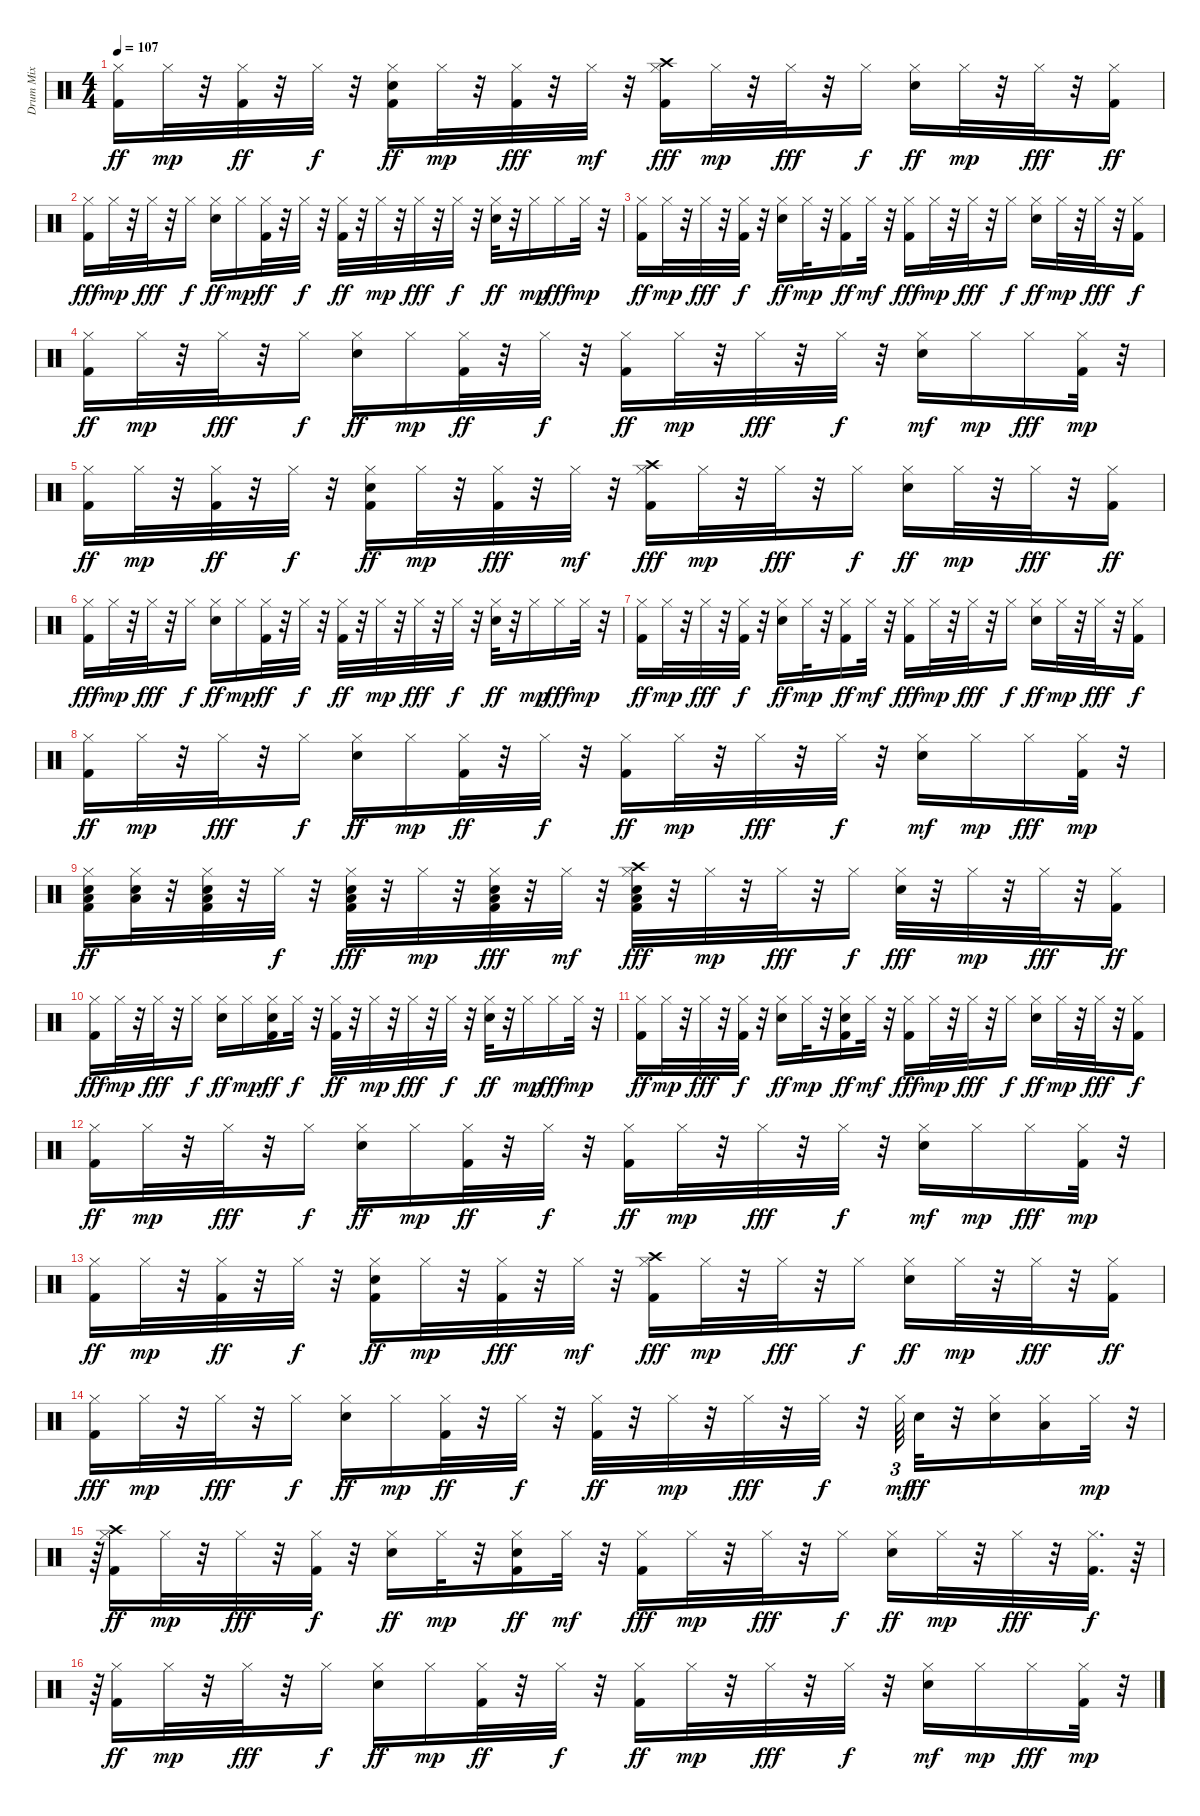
\track ("Drum Mix" "Drum Mix") {instrument percussion}
\staff {score}
\articulation defaults
\ts (4 4)
\tempo 107
\clef neutral
\ks c
("Hi-Hat (closed)" "Kick (hit) 2").16{dy ff} "Hi-Hat (closed)".32{dy mp} r.32 ("Hi-Hat (closed)" "Kick (hit) 2").32{dy ff} r.32 "Hi-Hat (closed)".32{dy f} r.32 ("Hi-Hat (closed)" "Snare (hit) 2" "Kick (hit) 2").16{dy ff} "Hi-Hat (closed)".32{dy mp} r.32 ("Hi-Hat (closed)" "Kick (hit) 2").32{dy fff} r.32 "Hi-Hat (closed)".32{dy mf} r.32 ("Hi-Hat (closed)" "Kick (hit) 2" "Crash high (hit)").16{dy fff} "Hi-Hat (closed)".32{dy mp} r.32 "Hi-Hat (closed)".32{dy fff} r.32 "Hi-Hat (closed)".16{dy f} ("Hi-Hat (closed)" "Snare (hit) 2").16{dy ff} "Hi-Hat (closed)".32{dy mp} r.32 "Hi-Hat (closed)".32{dy fff} r.32 ("Hi-Hat (closed)" "Kick (hit) 2").16{dy ff} |
("Hi-Hat (closed)" "Kick (hit) 2").16{dy fff} "Hi-Hat (closed)".32{dy mp} r.32 "Hi-Hat (closed)".32{dy fff} r.32 "Hi-Hat (closed)".16{dy f} ("Hi-Hat (closed)" "Snare (hit) 2").16{dy ff} "Hi-Hat (closed)".16{dy mp} ("Hi-Hat (closed)" "Kick (hit) 2").32{dy ff} r.32 "Hi-Hat (closed)".32{dy f} r.32 ("Hi-Hat (closed)" "Kick (hit) 2").32{dy ff} r.32 "Hi-Hat (closed)".32{dy mp} r.32 "Hi-Hat (closed)".32{dy fff} r.32 "Hi-Hat (closed)".32{dy f} r.32 ("Hi-Hat (closed)" "Snare (hit) 2").32{dy ff} r.32 "Hi-Hat (closed)".16{dy mp} "Hi-Hat (closed)".16{dy fff} "Hi-Hat (closed)".32{dy mp} r.32 |
("Hi-Hat (closed)" "Kick (hit) 2").16{dy ff} "Hi-Hat (closed)".32{dy mp} r.32 "Hi-Hat (closed)".32{dy fff} r.32 ("Hi-Hat (closed)" "Kick (hit) 2").32{dy f} r.32 ("Hi-Hat (closed)" "Snare (hit) 2").16{dy ff} "Hi-Hat (closed)".32{dy mp} r.32 ("Hi-Hat (closed)" "Kick (hit) 2").16{dy ff} "Hi-Hat (closed)".32{dy mf} r.32 ("Hi-Hat (closed)" "Kick (hit) 2").16{dy fff} "Hi-Hat (closed)".32{dy mp} r.32 "Hi-Hat (closed)".32{dy fff} r.32 "Hi-Hat (closed)".16{dy f} ("Hi-Hat (closed)" "Snare (hit) 2").16{dy ff} "Hi-Hat (closed)".32{dy mp} r.32 "Hi-Hat (closed)".32{dy fff} r.32 ("Hi-Hat (closed)" "Kick (hit) 2").16{dy f} |
("Hi-Hat (closed)" "Kick (hit) 2").16{dy ff} "Hi-Hat (closed)".32{dy mp} r.32 "Hi-Hat (closed)".32{dy fff} r.32 "Hi-Hat (closed)".16{dy f} ("Hi-Hat (closed)" "Snare (hit) 2").16{dy ff} "Hi-Hat (closed)".16{dy mp} ("Hi-Hat (closed)" "Kick (hit) 2").32{dy ff} r.32 "Hi-Hat (closed)".32{dy f} r.32 ("Hi-Hat (closed)" "Kick (hit) 2").16{dy ff} "Hi-Hat (closed)".32{dy mp} r.32 "Hi-Hat (closed)".32{dy fff} r.32 "Hi-Hat (closed)".32{dy f} r.32 ("Hi-Hat (closed)" "Snare (hit) 2").16{dy mf} "Hi-Hat (closed)".16{dy mp} "Hi-Hat (closed)".16{dy fff} ("Hi-Hat (closed)" "Kick (hit) 2").32{dy mp} r.32 |
("Hi-Hat (closed)" "Kick (hit) 2").16{dy ff} "Hi-Hat (closed)".32{dy mp} r.32 ("Hi-Hat (closed)" "Kick (hit) 2").32{dy ff} r.32 "Hi-Hat (closed)".32{dy f} r.32 ("Hi-Hat (closed)" "Snare (hit) 2" "Kick (hit) 2").16{dy ff} "Hi-Hat (closed)".32{dy mp} r.32 ("Hi-Hat (closed)" "Kick (hit) 2").32{dy fff} r.32 "Hi-Hat (closed)".32{dy mf} r.32 ("Hi-Hat (closed)" "Kick (hit) 2" "Crash high (hit)").16{dy fff} "Hi-Hat (closed)".32{dy mp} r.32 "Hi-Hat (closed)".32{dy fff} r.32 "Hi-Hat (closed)".16{dy f} ("Hi-Hat (closed)" "Snare (hit) 2").16{dy ff} "Hi-Hat (closed)".32{dy mp} r.32 "Hi-Hat (closed)".32{dy fff} r.32 ("Hi-Hat (closed)" "Kick (hit) 2").16{dy ff} |
("Hi-Hat (closed)" "Kick (hit) 2").16{dy fff} "Hi-Hat (closed)".32{dy mp} r.32 "Hi-Hat (closed)".32{dy fff} r.32 "Hi-Hat (closed)".16{dy f} ("Hi-Hat (closed)" "Snare (hit) 2").16{dy ff} "Hi-Hat (closed)".16{dy mp} ("Hi-Hat (closed)" "Kick (hit) 2").32{dy ff} r.32 "Hi-Hat (closed)".32{dy f} r.32 ("Hi-Hat (closed)" "Kick (hit) 2").32{dy ff} r.32 "Hi-Hat (closed)".32{dy mp} r.32 "Hi-Hat (closed)".32{dy fff} r.32 "Hi-Hat (closed)".32{dy f} r.32 ("Hi-Hat (closed)" "Snare (hit) 2").32{dy ff} r.32 "Hi-Hat (closed)".16{dy mp} "Hi-Hat (closed)".16{dy fff} "Hi-Hat (closed)".32{dy mp} r.32 |
("Hi-Hat (closed)" "Kick (hit) 2").16{dy ff} "Hi-Hat (closed)".32{dy mp} r.32 "Hi-Hat (closed)".32{dy fff} r.32 ("Hi-Hat (closed)" "Kick (hit) 2").32{dy f} r.32 ("Hi-Hat (closed)" "Snare (hit) 2").16{dy ff} "Hi-Hat (closed)".32{dy mp} r.32 ("Hi-Hat (closed)" "Kick (hit) 2").16{dy ff} "Hi-Hat (closed)".32{dy mf} r.32 ("Hi-Hat (closed)" "Kick (hit) 2").16{dy fff} "Hi-Hat (closed)".32{dy mp} r.32 "Hi-Hat (closed)".32{dy fff} r.32 "Hi-Hat (closed)".16{dy f} ("Hi-Hat (closed)" "Snare (hit) 2").16{dy ff} "Hi-Hat (closed)".32{dy mp} r.32 "Hi-Hat (closed)".32{dy fff} r.32 ("Hi-Hat (closed)" "Kick (hit) 2").16{dy f} |
("Hi-Hat (closed)" "Kick (hit) 2").16{dy ff} "Hi-Hat (closed)".32{dy mp} r.32 "Hi-Hat (closed)".32{dy fff} r.32 "Hi-Hat (closed)".16{dy f} ("Hi-Hat (closed)" "Snare (hit) 2").16{dy ff} "Hi-Hat (closed)".16{dy mp} ("Hi-Hat (closed)" "Kick (hit) 2").32{dy ff} r.32 "Hi-Hat (closed)".32{dy f} r.32 ("Hi-Hat (closed)" "Kick (hit) 2").16{dy ff} "Hi-Hat (closed)".32{dy mp} r.32 "Hi-Hat (closed)".32{dy fff} r.32 "Hi-Hat (closed)".32{dy f} r.32 ("Hi-Hat (closed)" "Snare (hit) 2").16{dy mf} "Hi-Hat (closed)".16{dy mp} "Hi-Hat (closed)".16{dy fff} ("Hi-Hat (closed)" "Kick (hit) 2").32{dy mp} r.32 |
("Hi-Hat (closed)" "Snare (hit) 2" "Low Tom (hit)" "Kick (hit) 2").16{dy ff} ("Hi-Hat (closed)" "Snare (hit) 2" "Low Tom (hit)").32 r.32 ("Hi-Hat (closed)" "Kick (hit) 2" "Snare (hit) 2" "Low Tom (hit)").32 r.32 "Hi-Hat (closed)".32{dy f} r.32 ("Hi-Hat (closed)" "Snare (hit) 2" "Kick (hit) 2" "Low Tom (hit)").32{dy fff} r.32 "Hi-Hat (closed)".32{dy mp} r.32 ("Hi-Hat (closed)" "Low Tom (hit)" "Kick (hit) 2" "Snare (hit) 2").32{dy fff} r.32 "Hi-Hat (closed)".32{dy mf} r.32 ("Hi-Hat (closed)" "Kick (hit) 2" "Crash high (hit)" "Low Tom (hit)" "Snare (hit) 2").32{dy fff} r.32 "Hi-Hat (closed)".32{dy mp} r.32 "Hi-Hat (closed)".32{dy fff} r.32 "Hi-Hat (closed)".16{dy f} ("Hi-Hat (closed)" "Snare (hit) 2").32{dy fff} r.32 "Hi-Hat (closed)".32{dy mp} r.32 "Hi-Hat (closed)".32{dy fff} r.32 ("Hi-Hat (closed)" "Kick (hit) 2").16{dy ff} |
("Hi-Hat (closed)" "Kick (hit) 2").16{dy fff} "Hi-Hat (closed)".32{dy mp} r.32 "Hi-Hat (closed)".32{dy fff} r.32 "Hi-Hat (closed)".16{dy f} ("Hi-Hat (closed)" "Snare (hit) 2").16{dy ff} "Hi-Hat (closed)".16{dy mp} ("Hi-Hat (closed)" "Kick (hit) 2" "Snare (hit) 2").16{dy ff} "Hi-Hat (closed)".32{dy f} r.32 ("Hi-Hat (closed)" "Kick (hit) 2").32{dy ff} r.32 "Hi-Hat (closed)".32{dy mp} r.32 "Hi-Hat (closed)".32{dy fff} r.32 "Hi-Hat (closed)".32{dy f} r.32 ("Hi-Hat (closed)" "Snare (hit) 2").32{dy ff} r.32 "Hi-Hat (closed)".16{dy mp} "Hi-Hat (closed)".16{dy fff} "Hi-Hat (closed)".32{dy mp} r.32 |
("Hi-Hat (closed)" "Kick (hit) 2").16{dy ff} "Hi-Hat (closed)".32{dy mp} r.32 "Hi-Hat (closed)".32{dy fff} r.32 ("Hi-Hat (closed)" "Kick (hit) 2").32{dy f} r.32 ("Hi-Hat (closed)" "Snare (hit) 2").16{dy ff} "Hi-Hat (closed)".32{dy mp} r.32 ("Hi-Hat (closed)" "Snare (hit) 2" "Kick (hit) 2").16{dy ff} "Hi-Hat (closed)".32{dy mf} r.32 ("Hi-Hat (closed)" "Kick (hit) 2").16{dy fff} "Hi-Hat (closed)".32{dy mp} r.32 "Hi-Hat (closed)".32{dy fff} r.32 "Hi-Hat (closed)".16{dy f} ("Hi-Hat (closed)" "Snare (hit) 2").16{dy ff} "Hi-Hat (closed)".32{dy mp} r.32 "Hi-Hat (closed)".32{dy fff} r.32 ("Hi-Hat (closed)" "Kick (hit) 2").16{dy f} |
("Hi-Hat (closed)" "Kick (hit) 2").16{dy ff} "Hi-Hat (closed)".32{dy mp} r.32 "Hi-Hat (closed)".32{dy fff} r.32 "Hi-Hat (closed)".16{dy f} ("Hi-Hat (closed)" "Snare (hit) 2").16{dy ff} "Hi-Hat (closed)".16{dy mp} ("Hi-Hat (closed)" "Kick (hit) 2").32{dy ff} r.32 "Hi-Hat (closed)".32{dy f} r.32 ("Hi-Hat (closed)" "Kick (hit) 2").16{dy ff} "Hi-Hat (closed)".32{dy mp} r.32 "Hi-Hat (closed)".32{dy fff} r.32 "Hi-Hat (closed)".32{dy f} r.32 ("Hi-Hat (closed)" "Snare (hit) 2").16{dy mf} "Hi-Hat (closed)".16{dy mp} "Hi-Hat (closed)".16{dy fff} ("Hi-Hat (closed)" "Kick (hit) 2").32{dy mp} r.32 |
("Hi-Hat (closed)" "Kick (hit) 2").16{dy ff} "Hi-Hat (closed)".32{dy mp} r.32 ("Hi-Hat (closed)" "Kick (hit) 2").32{dy ff} r.32 "Hi-Hat (closed)".32{dy f} r.32 ("Hi-Hat (closed)" "Snare (hit) 2" "Kick (hit) 2").16{dy ff} "Hi-Hat (closed)".32{dy mp} r.32 ("Hi-Hat (closed)" "Kick (hit) 2").32{dy fff} r.32 "Hi-Hat (closed)".32{dy mf} r.32 ("Hi-Hat (closed)" "Kick (hit) 2" "Crash high (hit)").16{dy fff} "Hi-Hat (closed)".32{dy mp} r.32 "Hi-Hat (closed)".32{dy fff} r.32 "Hi-Hat (closed)".16{dy f} ("Hi-Hat (closed)" "Snare (hit) 2").16{dy ff} "Hi-Hat (closed)".32{dy mp} r.32 "Hi-Hat (closed)".32{dy fff} r.32 ("Hi-Hat (closed)" "Kick (hit) 2").16{dy ff} |
("Hi-Hat (closed)" "Kick (hit) 2").16{dy fff} "Hi-Hat (closed)".32{dy mp} r.32 "Hi-Hat (closed)".32{dy fff} r.32 "Hi-Hat (closed)".16{dy f} ("Hi-Hat (closed)" "Snare (hit) 2").16{dy ff} "Hi-Hat (closed)".16{dy mp} ("Hi-Hat (closed)" "Kick (hit) 2").32{dy ff} r.32 "Hi-Hat (closed)".32{dy f} r.32 ("Hi-Hat (closed)" "Kick (hit) 2").32{dy ff} r.32 "Hi-Hat (closed)".32{dy mp} r.32 "Hi-Hat (closed)".32{dy fff} r.32 "Hi-Hat (closed)".32{dy f} r.32 "Hi-Hat (closed)".64{tu (3 2) dy mf} "Snare (hit) 2".32{dy ff} r.32 ("Hi-Hat (closed)" "Snare (hit) 2").16 ("Hi-Hat (closed)" "Low Tom (hit)").16 "Hi-Hat (closed)".32{dy mp} r.32{tu (3 2)} |
r.64{tu (3 2)} ("Hi-Hat (closed)" "Crash high (hit)" "Kick (hit) 2").16{dy ff} "Hi-Hat (closed)".32{dy mp} r.32 "Hi-Hat (closed)".32{dy fff} r.32 ("Hi-Hat (closed)" "Kick (hit) 2").32{dy f} r.32 ("Hi-Hat (closed)" "Snare (hit) 2").16{dy ff} "Hi-Hat (closed)".32{dy mp} r.32 ("Hi-Hat (closed)" "Snare (hit) 2" "Kick (hit) 2").16{dy ff} "Hi-Hat (closed)".32{dy mf} r.32 ("Hi-Hat (closed)" "Kick (hit) 2").16{dy fff} "Hi-Hat (closed)".32{dy mp} r.32 "Hi-Hat (closed)".32{dy fff} r.32 "Hi-Hat (closed)".16{dy f} ("Hi-Hat (closed)" "Snare (hit) 2").16{dy ff} "Hi-Hat (closed)".32{dy mp} r.32 "Hi-Hat (closed)".32{dy fff} r.32 ("Hi-Hat (closed)" "Kick (hit) 2").32{d dy f} r.64 |
r.64{tu (3 2)} ("Hi-Hat (closed)" "Kick (hit) 2").16{dy ff} "Hi-Hat (closed)".32{dy mp} r.32 "Hi-Hat (closed)".32{dy fff} r.32 "Hi-Hat (closed)".16{dy f} ("Hi-Hat (closed)" "Snare (hit) 2").16{dy ff} "Hi-Hat (closed)".16{dy mp} ("Hi-Hat (closed)" "Kick (hit) 2").32{dy ff} r.32 "Hi-Hat (closed)".32{dy f} r.32 ("Hi-Hat (closed)" "Kick (hit) 2").16{dy ff} "Hi-Hat (closed)".32{dy mp} r.32 "Hi-Hat (closed)".32{dy fff} r.32 "Hi-Hat (closed)".32{dy f} r.32 ("Hi-Hat (closed)" "Snare (hit) 2").16{dy mf} "Hi-Hat (closed)".16{dy mp} "Hi-Hat (closed)".16{dy fff} ("Hi-Hat (closed)" "Kick (hit) 2").32{dy mp} r.32{tu (3 2)}
